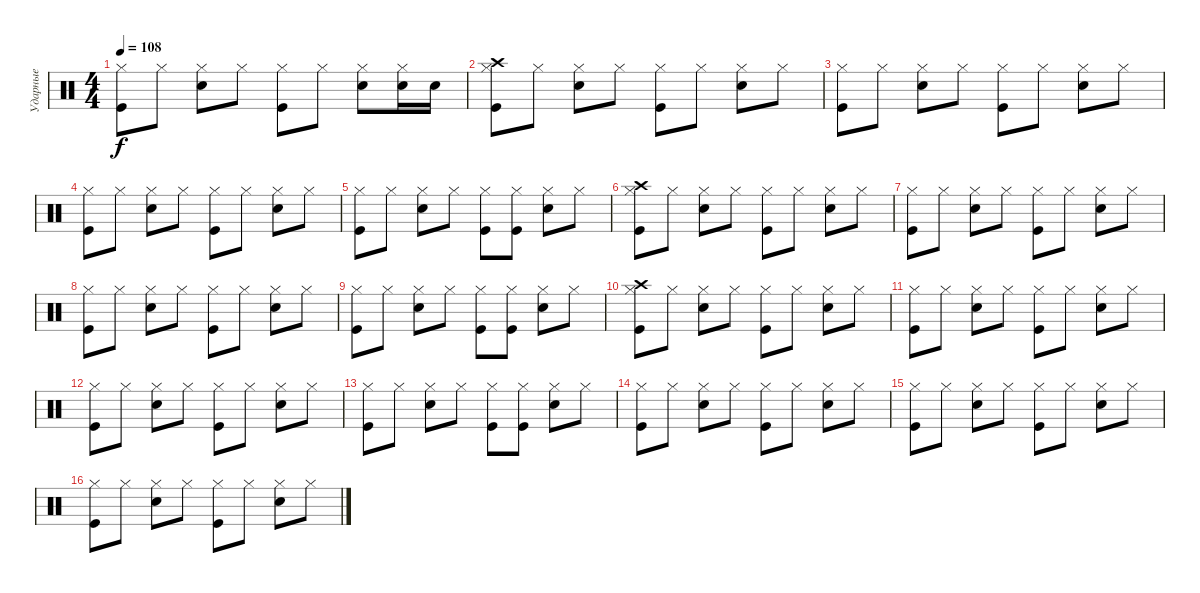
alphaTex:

\track ("Ударные" "Ударные") {instrument percussion}
\staff {score}
\articulation defaults
\ts (4 4)
\tempo 108
\clef neutral
\ks c
("Hi-Hat (closed)" "Kick (hit)").8{dy f} "Hi-Hat (closed)".8 ("Hi-Hat (closed)" "Snare (hit) 2").8 "Hi-Hat (closed)".8 ("Hi-Hat (closed)" "Kick (hit)").8 "Hi-Hat (closed)".8 ("Hi-Hat (closed)" "Snare (hit) 2").8 ("Hi-Hat (closed)" "Snare (hit) 2").16 "Snare (hit) 2".16 |
("Hi-Hat (closed)" "Kick (hit)" "Crash high (hit)").8 "Hi-Hat (closed)".8 ("Hi-Hat (closed)" "Snare (hit) 2").8 "Hi-Hat (closed)".8 ("Hi-Hat (closed)" "Kick (hit)").8 "Hi-Hat (closed)".8 ("Hi-Hat (closed)" "Snare (hit) 2").8 "Hi-Hat (closed)".8 |
("Hi-Hat (closed)" "Kick (hit)").8 "Hi-Hat (closed)".8 ("Hi-Hat (closed)" "Snare (hit) 2").8 "Hi-Hat (closed)".8 ("Hi-Hat (closed)" "Kick (hit)").8 "Hi-Hat (closed)".8 ("Hi-Hat (closed)" "Snare (hit) 2").8 "Hi-Hat (closed)".8 |
("Hi-Hat (closed)" "Kick (hit)").8 "Hi-Hat (closed)".8 ("Hi-Hat (closed)" "Snare (hit) 2").8 "Hi-Hat (closed)".8 ("Hi-Hat (closed)" "Kick (hit)").8 "Hi-Hat (closed)".8 ("Hi-Hat (closed)" "Snare (hit) 2").8 "Hi-Hat (closed)".8 |
("Hi-Hat (closed)" "Kick (hit)").8 "Hi-Hat (closed)".8 ("Hi-Hat (closed)" "Snare (hit) 2").8 "Hi-Hat (closed)".8 ("Hi-Hat (closed)" "Kick (hit)").8 ("Hi-Hat (closed)" "Kick (hit)").8 ("Hi-Hat (closed)" "Snare (hit) 2").8 "Hi-Hat (closed)".8 |
("Hi-Hat (closed)" "Kick (hit)" "Crash high (hit)").8 "Hi-Hat (closed)".8 ("Hi-Hat (closed)" "Snare (hit) 2").8 "Hi-Hat (closed)".8 ("Hi-Hat (closed)" "Kick (hit)").8 "Hi-Hat (closed)".8 ("Hi-Hat (closed)" "Snare (hit) 2").8 "Hi-Hat (closed)".8 |
("Hi-Hat (closed)" "Kick (hit)").8 "Hi-Hat (closed)".8 ("Hi-Hat (closed)" "Snare (hit) 2").8 "Hi-Hat (closed)".8 ("Hi-Hat (closed)" "Kick (hit)").8 "Hi-Hat (closed)".8 ("Hi-Hat (closed)" "Snare (hit) 2").8 "Hi-Hat (closed)".8 |
("Hi-Hat (closed)" "Kick (hit)").8 "Hi-Hat (closed)".8 ("Hi-Hat (closed)" "Snare (hit) 2").8 "Hi-Hat (closed)".8 ("Hi-Hat (closed)" "Kick (hit)").8 "Hi-Hat (closed)".8 ("Hi-Hat (closed)" "Snare (hit) 2").8 "Hi-Hat (closed)".8 |
("Hi-Hat (closed)" "Kick (hit)").8 "Hi-Hat (closed)".8 ("Hi-Hat (closed)" "Snare (hit) 2").8 "Hi-Hat (closed)".8 ("Hi-Hat (closed)" "Kick (hit)").8 ("Hi-Hat (closed)" "Kick (hit)").8 ("Hi-Hat (closed)" "Snare (hit) 2").8 "Hi-Hat (closed)".8 |
("Hi-Hat (closed)" "Kick (hit)" "Crash high (hit)").8 "Hi-Hat (closed)".8 ("Hi-Hat (closed)" "Snare (hit) 2").8 "Hi-Hat (closed)".8 ("Hi-Hat (closed)" "Kick (hit)").8 "Hi-Hat (closed)".8 ("Hi-Hat (closed)" "Snare (hit) 2").8 "Hi-Hat (closed)".8 |
("Hi-Hat (closed)" "Kick (hit)").8 "Hi-Hat (closed)".8 ("Hi-Hat (closed)" "Snare (hit) 2").8 "Hi-Hat (closed)".8 ("Hi-Hat (closed)" "Kick (hit)").8 "Hi-Hat (closed)".8 ("Hi-Hat (closed)" "Snare (hit) 2").8 "Hi-Hat (closed)".8 |
("Hi-Hat (closed)" "Kick (hit)").8 "Hi-Hat (closed)".8 ("Hi-Hat (closed)" "Snare (hit) 2").8 "Hi-Hat (closed)".8 ("Hi-Hat (closed)" "Kick (hit)").8 "Hi-Hat (closed)".8 ("Hi-Hat (closed)" "Snare (hit) 2").8 "Hi-Hat (closed)".8 |
("Hi-Hat (closed)" "Kick (hit)").8 "Hi-Hat (closed)".8 ("Hi-Hat (closed)" "Snare (hit) 2").8 "Hi-Hat (closed)".8 ("Hi-Hat (closed)" "Kick (hit)").8 ("Hi-Hat (closed)" "Kick (hit)").8 ("Hi-Hat (closed)" "Snare (hit) 2").8 "Hi-Hat (closed)".8 |
("Hi-Hat (closed)" "Kick (hit)").8 "Hi-Hat (closed)".8 ("Hi-Hat (closed)" "Snare (hit) 2").8 "Hi-Hat (closed)".8 ("Hi-Hat (closed)" "Kick (hit)").8 "Hi-Hat (closed)".8 ("Hi-Hat (closed)" "Snare (hit) 2").8 "Hi-Hat (closed)".8 |
("Hi-Hat (closed)" "Kick (hit)").8 "Hi-Hat (closed)".8 ("Hi-Hat (closed)" "Snare (hit) 2").8 "Hi-Hat (closed)".8 ("Hi-Hat (closed)" "Kick (hit)").8 "Hi-Hat (closed)".8 ("Hi-Hat (closed)" "Snare (hit) 2").8 "Hi-Hat (closed)".8 |
("Hi-Hat (closed)" "Kick (hit)").8 "Hi-Hat (closed)".8 ("Hi-Hat (closed)" "Snare (hit) 2").8 "Hi-Hat (closed)".8 ("Hi-Hat (closed)" "Kick (hit)").8 "Hi-Hat (closed)".8 ("Hi-Hat (closed)" "Snare (hit) 2").8 "Hi-Hat (closed)".8
